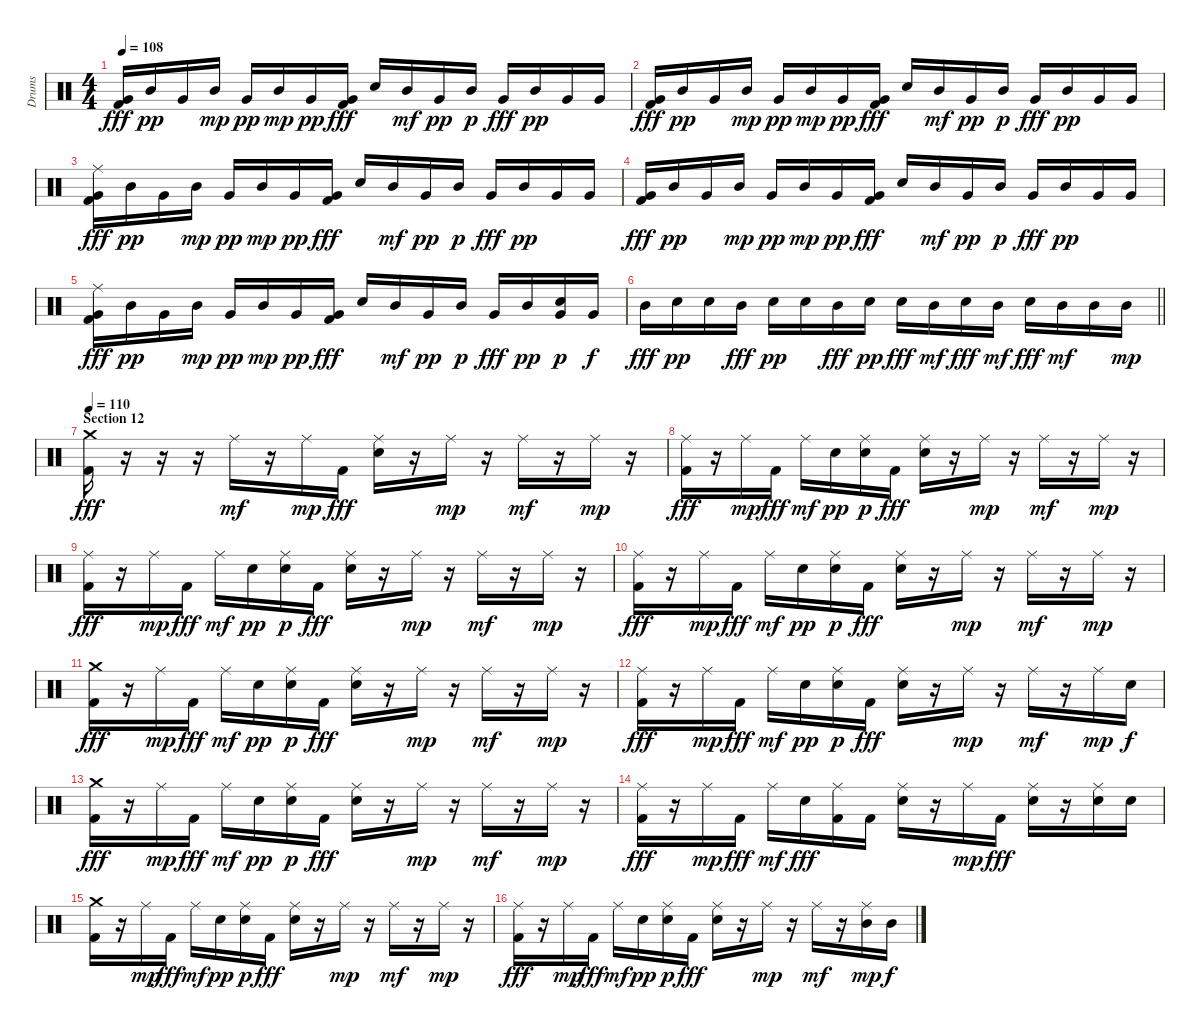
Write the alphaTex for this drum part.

\track ("Drums" "Drums") {instrument percussion}
\staff {score}
\articulation defaults
\ts (4 4)
\tempo 108
\clef neutral
\ks c
("Very Low Tom (hit)" "Kick (hit) 2").16{dy fff} "Mid Tom (hit)".16{dy pp} "Very Low Tom (hit)".16 "Mid Tom (hit)".16{dy mp} "Very Low Tom (hit)".16{dy pp} "Mid Tom (hit)".16{dy mp} "Very Low Tom (hit)".16{dy pp} ("Very Low Tom (hit)" "Kick (hit) 2").16{dy fff} "Electric Snare (hit)".16 "Mid Tom (hit)".16{dy mf} "Very Low Tom (hit)".16{dy pp} "Mid Tom (hit)".16{dy p} "Very Low Tom (hit)".16{dy fff} "Mid Tom (hit)".16{dy pp} "Very Low Tom (hit)".16 "Very Low Tom (hit)".16 |
("Very Low Tom (hit)" "Kick (hit) 2").16{dy fff} "Mid Tom (hit)".16{dy pp} "Very Low Tom (hit)".16 "Mid Tom (hit)".16{dy mp} "Very Low Tom (hit)".16{dy pp} "Mid Tom (hit)".16{dy mp} "Very Low Tom (hit)".16{dy pp} ("Very Low Tom (hit)" "Kick (hit) 2").16{dy fff} "Electric Snare (hit)".16 "Mid Tom (hit)".16{dy mf} "Very Low Tom (hit)".16{dy pp} "Mid Tom (hit)".16{dy p} "Very Low Tom (hit)".16{dy fff} "Mid Tom (hit)".16{dy pp} "Very Low Tom (hit)".16 "Very Low Tom (hit)".16 |
("Ride (middle)" "Very Low Tom (hit)" "Kick (hit) 2").16{dy fff} "Mid Tom (hit)".16{dy pp} "Very Low Tom (hit)".16 "Mid Tom (hit)".16{dy mp} "Very Low Tom (hit)".16{dy pp} "Mid Tom (hit)".16{dy mp} "Very Low Tom (hit)".16{dy pp} ("Very Low Tom (hit)" "Kick (hit) 2").16{dy fff} "Electric Snare (hit)".16 "Mid Tom (hit)".16{dy mf} "Very Low Tom (hit)".16{dy pp} "Mid Tom (hit)".16{dy p} "Very Low Tom (hit)".16{dy fff} "Mid Tom (hit)".16{dy pp} "Very Low Tom (hit)".16 "Very Low Tom (hit)".16 |
("Very Low Tom (hit)" "Kick (hit) 2").16{dy fff} "Mid Tom (hit)".16{dy pp} "Very Low Tom (hit)".16 "Mid Tom (hit)".16{dy mp} "Very Low Tom (hit)".16{dy pp} "Mid Tom (hit)".16{dy mp} "Very Low Tom (hit)".16{dy pp} ("Very Low Tom (hit)" "Kick (hit) 2").16{dy fff} "Electric Snare (hit)".16 "Mid Tom (hit)".16{dy mf} "Very Low Tom (hit)".16{dy pp} "Mid Tom (hit)".16{dy p} "Very Low Tom (hit)".16{dy fff} "Mid Tom (hit)".16{dy pp} "Very Low Tom (hit)".16 "Very Low Tom (hit)".16 |
("Ride (middle)" "Very Low Tom (hit)" "Kick (hit) 2").16{dy fff} "Mid Tom (hit)".16{dy pp} "Very Low Tom (hit)".16 "Mid Tom (hit)".16{dy mp} "Very Low Tom (hit)".16{dy pp} "Mid Tom (hit)".16{dy mp} "Very Low Tom (hit)".16{dy pp} ("Very Low Tom (hit)" "Kick (hit) 2").16{dy fff} "Electric Snare (hit)".16 "Mid Tom (hit)".16{dy mf} "Very Low Tom (hit)".16{dy pp} "Mid Tom (hit)".16{dy p} "Very Low Tom (hit)".16{dy fff} "Mid Tom (hit)".16{dy pp} ("Electric Snare (hit)" "Very Low Tom (hit)").16{dy p} "Very Low Tom (hit)".16{dy f} |
\barLineRight lightlight "Mid Tom (hit)".16{dy fff} "Electric Snare (hit)".16{dy pp} "Electric Snare (hit)".16 "Mid Tom (hit)".16{dy fff} "Electric Snare (hit)".16{dy pp} "Electric Snare (hit)".16 "Mid Tom (hit)".16{dy fff} "Electric Snare (hit)".16{dy pp} "Electric Snare (hit)".16{dy fff} "Mid Tom (hit)".16{dy mf} "Electric Snare (hit)".16{dy fff} "Mid Tom (hit)".16{dy mf} "Electric Snare (hit)".16{dy fff} "Mid Tom (hit)".16{dy mf} "Mid Tom (hit)".16 "Mid Tom (hit)".16{dy mp}
|
\section ("" "Section 12")
\tempo 110
("Crash medium (hit)" "Kick (hit) 2").16{dy fff} r.16 r.16 r.16 "Ride (middle)".16{dy mf} r.16 "Ride (middle)".16{dy mp} "Kick (hit) 2".16{dy fff} ("Ride (middle)" "Electric Snare (hit)").16 r.16 "Ride (middle)".16{dy mp} r.16 "Ride (middle)".16{dy mf} r.16 "Ride (middle)".16{dy mp} r.16 |
("Ride (middle)" "Kick (hit) 2").16{dy fff} r.16 "Ride (middle)".16{dy mp} "Kick (hit) 2".16{dy fff} "Ride (middle)".16{dy mf} "Electric Snare (hit)".16{dy pp} ("Ride (middle)" "Electric Snare (hit)").16{dy p} "Kick (hit) 2".16{dy fff} ("Ride (middle)" "Electric Snare (hit)").16 r.16 "Ride (middle)".16{dy mp} r.16 "Ride (middle)".16{dy mf} r.16 "Ride (middle)".16{dy mp} r.16 |
("Ride (middle)" "Kick (hit) 2").16{dy fff} r.16 "Ride (middle)".16{dy mp} "Kick (hit) 2".16{dy fff} "Ride (middle)".16{dy mf} "Electric Snare (hit)".16{dy pp} ("Ride (middle)" "Electric Snare (hit)").16{dy p} "Kick (hit) 2".16{dy fff} ("Ride (middle)" "Electric Snare (hit)").16 r.16 "Ride (middle)".16{dy mp} r.16 "Ride (middle)".16{dy mf} r.16 "Ride (middle)".16{dy mp} r.16 |
("Ride (middle)" "Kick (hit) 2").16{dy fff} r.16 "Ride (middle)".16{dy mp} "Kick (hit) 2".16{dy fff} "Ride (middle)".16{dy mf} "Electric Snare (hit)".16{dy pp} ("Ride (middle)" "Electric Snare (hit)").16{dy p} "Kick (hit) 2".16{dy fff} ("Ride (middle)" "Electric Snare (hit)").16 r.16 "Ride (middle)".16{dy mp} r.16 "Ride (middle)".16{dy mf} r.16 "Ride (middle)".16{dy mp} r.16 |
("Crash medium (hit)" "Kick (hit) 2").16{dy fff} r.16 "Ride (middle)".16{dy mp} "Kick (hit) 2".16{dy fff} "Ride (middle)".16{dy mf} "Electric Snare (hit)".16{dy pp} ("Ride (middle)" "Electric Snare (hit)").16{dy p} "Kick (hit) 2".16{dy fff} ("Ride (middle)" "Electric Snare (hit)").16 r.16 "Ride (middle)".16{dy mp} r.16 "Ride (middle)".16{dy mf} r.16 "Ride (middle)".16{dy mp} r.16 |
("Ride (middle)" "Kick (hit) 2").16{dy fff} r.16 "Ride (middle)".16{dy mp} "Kick (hit) 2".16{dy fff} "Ride (middle)".16{dy mf} "Electric Snare (hit)".16{dy pp} ("Ride (middle)" "Electric Snare (hit)").16{dy p} "Kick (hit) 2".16{dy fff} ("Ride (middle)" "Electric Snare (hit)").16 r.16 "Ride (middle)".16{dy mp} r.16 "Ride (middle)".16{dy mf} r.16 "Ride (middle)".16{dy mp} "Electric Snare (hit)".16{dy f} |
("Crash medium (hit)" "Kick (hit) 2").16{dy fff} r.16 "Ride (middle)".16{dy mp} "Kick (hit) 2".16{dy fff} "Ride (middle)".16{dy mf} "Electric Snare (hit)".16{dy pp} ("Ride (middle)" "Electric Snare (hit)").16{dy p} "Kick (hit) 2".16{dy fff} ("Ride (middle)" "Electric Snare (hit)").16 r.16 "Ride (middle)".16{dy mp} r.16 "Ride (middle)".16{dy mf} r.16 "Ride (middle)".16{dy mp} r.16 |
("Ride (middle)" "Kick (hit) 2").16{dy fff} r.16 "Ride (middle)".16{dy mp} "Kick (hit) 2".16{dy fff} "Ride (middle)".16{dy mf} "Electric Snare (hit)".16{dy fff} ("Ride (middle)" "Kick (hit) 2").16 "Kick (hit) 2".16 ("Ride (middle)" "Electric Snare (hit)").16 r.16 "Ride (middle)".16{dy mp} "Kick (hit) 2".16{dy fff} ("Ride (middle)" "Electric Snare (hit)").16 r.16 ("Ride (middle)" "Electric Snare (hit)").16 "Electric Snare (hit)".16 |
("Crash medium (hit)" "Kick (hit) 2").16 r.16 "Ride (middle)".16{dy mp} "Kick (hit) 2".16{dy fff} "Ride (middle)".16{dy mf} "Electric Snare (hit)".16{dy pp} ("Ride (middle)" "Electric Snare (hit)").16{dy p} "Kick (hit) 2".16{dy fff} ("Ride (middle)" "Electric Snare (hit)").16 r.16 "Ride (middle)".16{dy mp} r.16 "Ride (middle)".16{dy mf} r.16 "Ride (middle)".16{dy mp} r.16 |
("Ride (middle)" "Kick (hit) 2").16{dy fff} r.16 "Ride (middle)".16{dy mp} "Kick (hit) 2".16{dy fff} "Ride (middle)".16{dy mf} "Electric Snare (hit)".16{dy pp} ("Ride (middle)" "Electric Snare (hit)").16{dy p} "Kick (hit) 2".16{dy fff} ("Ride (middle)" "Electric Snare (hit)").16 r.16 "Ride (middle)".16{dy mp} r.16 "Ride (middle)".16{dy mf} r.16 ("Ride (middle)" "Mid Tom (hit)").16{dy mp} "Mid Tom (hit)".16{dy f}
